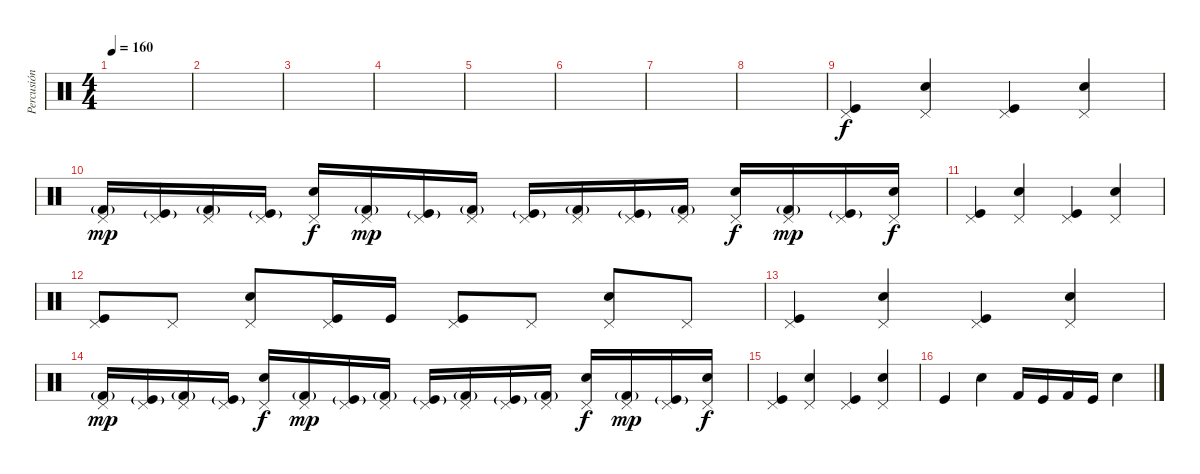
\track ("Percusión" "Percusión") {instrument percussion}
\staff {score}
\articulation defaults
\ts (4 4)
\tempo 160
\clef neutral
\ks c
|
|
|
|
|
|
|
|
("Kick (hit)" "Pedal Hi-Hat (hit)").4 ("Electric Snare (hit)" "Pedal Hi-Hat (hit)").4 ("Kick (hit)" "Pedal Hi-Hat (hit)").4 ("Electric Snare (hit)" "Pedal Hi-Hat (hit)").4 |
("Kick (hit) 2"{g} "Pedal Hi-Hat (hit)").16{dy mp} ("Kick (hit)"{g} "Pedal Hi-Hat (hit)").16 ("Kick (hit) 2"{g} "Pedal Hi-Hat (hit)").16 ("Kick (hit)"{g} "Pedal Hi-Hat (hit)").16 ("Electric Snare (hit)" "Pedal Hi-Hat (hit)").16{dy f} ("Kick (hit) 2"{g} "Pedal Hi-Hat (hit)").16{dy mp} ("Kick (hit)"{g} "Pedal Hi-Hat (hit)").16 ("Kick (hit) 2"{g} "Pedal Hi-Hat (hit)").16 ("Kick (hit)"{g} "Pedal Hi-Hat (hit)").16 ("Kick (hit) 2"{g} "Pedal Hi-Hat (hit)").16 ("Kick (hit)"{g} "Pedal Hi-Hat (hit)").16 ("Kick (hit) 2"{g} "Pedal Hi-Hat (hit)").16 ("Electric Snare (hit)" "Pedal Hi-Hat (hit)").16{dy f} ("Kick (hit) 2"{g} "Pedal Hi-Hat (hit)").16{dy mp} ("Kick (hit)"{g} "Pedal Hi-Hat (hit)").16 ("Electric Snare (hit)" "Pedal Hi-Hat (hit)").16{dy f} |
("Kick (hit)" "Pedal Hi-Hat (hit)").4 ("Electric Snare (hit)" "Pedal Hi-Hat (hit)").4 ("Kick (hit)" "Pedal Hi-Hat (hit)").4 ("Electric Snare (hit)" "Pedal Hi-Hat (hit)").4 |
("Kick (hit)" "Pedal Hi-Hat (hit)").8 "Pedal Hi-Hat (hit)".8 ("Electric Snare (hit)" "Pedal Hi-Hat (hit)").8 ("Kick (hit)" "Pedal Hi-Hat (hit)").16 "Kick (hit)".16 ("Kick (hit)" "Pedal Hi-Hat (hit)").8 "Pedal Hi-Hat (hit)".8 ("Electric Snare (hit)" "Pedal Hi-Hat (hit)").8 "Pedal Hi-Hat (hit)".8 |
("Kick (hit)" "Pedal Hi-Hat (hit)").4 ("Electric Snare (hit)" "Pedal Hi-Hat (hit)").4 ("Kick (hit)" "Pedal Hi-Hat (hit)").4 ("Electric Snare (hit)" "Pedal Hi-Hat (hit)").4 |
("Kick (hit) 2"{g} "Pedal Hi-Hat (hit)").16{dy mp} ("Kick (hit)"{g} "Pedal Hi-Hat (hit)").16 ("Kick (hit) 2"{g} "Pedal Hi-Hat (hit)").16 ("Kick (hit)"{g} "Pedal Hi-Hat (hit)").16 ("Electric Snare (hit)" "Pedal Hi-Hat (hit)").16{dy f} ("Kick (hit) 2"{g} "Pedal Hi-Hat (hit)").16{dy mp} ("Kick (hit)"{g} "Pedal Hi-Hat (hit)").16 ("Kick (hit) 2"{g} "Pedal Hi-Hat (hit)").16 ("Kick (hit)"{g} "Pedal Hi-Hat (hit)").16 ("Kick (hit) 2"{g} "Pedal Hi-Hat (hit)").16 ("Kick (hit)"{g} "Pedal Hi-Hat (hit)").16 ("Kick (hit) 2"{g} "Pedal Hi-Hat (hit)").16 ("Electric Snare (hit)" "Pedal Hi-Hat (hit)").16{dy f} ("Kick (hit) 2"{g} "Pedal Hi-Hat (hit)").16{dy mp} ("Kick (hit)"{g} "Pedal Hi-Hat (hit)").16 ("Electric Snare (hit)" "Pedal Hi-Hat (hit)").16{dy f} |
("Kick (hit)" "Pedal Hi-Hat (hit)").4 ("Electric Snare (hit)" "Pedal Hi-Hat (hit)").4 ("Kick (hit)" "Pedal Hi-Hat (hit)").4 ("Electric Snare (hit)" "Pedal Hi-Hat (hit)").4 |
"Kick (hit)".4 "Electric Snare (hit)".4 "Kick (hit) 2".16 "Kick (hit)".16 "Kick (hit) 2".16 "Kick (hit)".16 "Electric Snare (hit)".4
